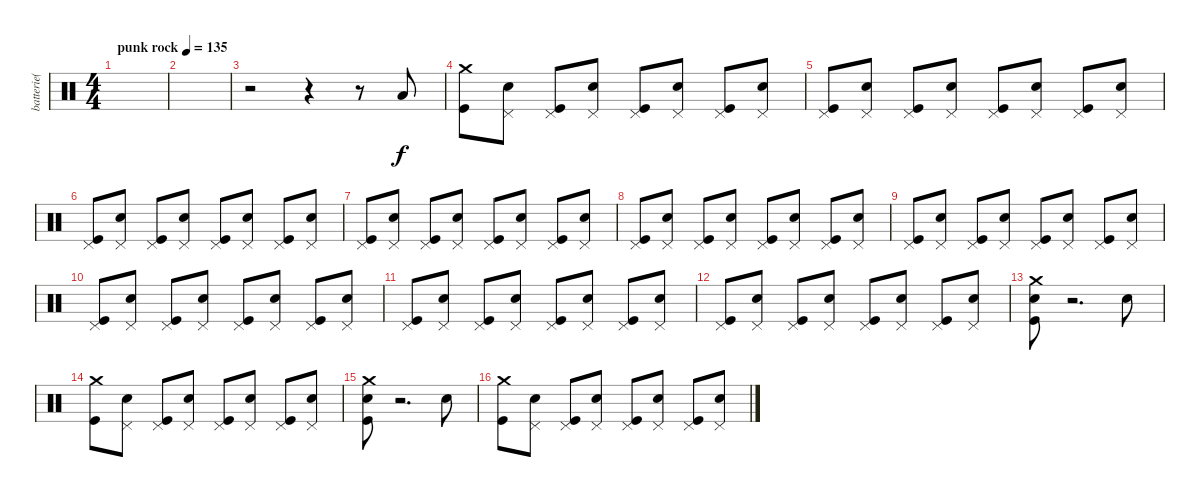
\track ("batterie( Yureesh )" "batterie( ") {instrument percussion}
\staff {score}
\articulation defaults
\ts (4 4)
\tempo (135 "punk rock")
\clef neutral
\ks c
|
|
r.2 r.4 r.8 "Low Floor Tom (hit)".8 |
("Crash medium (hit)" "Kick (hit)").8 ("Pedal Hi-Hat (hit)" "Snare (hit) 2").8 ("Pedal Hi-Hat (hit)" "Kick (hit)").8 ("Pedal Hi-Hat (hit)" "Snare (hit) 2").8 ("Pedal Hi-Hat (hit)" "Kick (hit)").8 ("Pedal Hi-Hat (hit)" "Snare (hit) 2").8 ("Pedal Hi-Hat (hit)" "Kick (hit)").8 ("Pedal Hi-Hat (hit)" "Snare (hit) 2").8 |
("Pedal Hi-Hat (hit)" "Kick (hit)").8 ("Pedal Hi-Hat (hit)" "Snare (hit) 2").8 ("Pedal Hi-Hat (hit)" "Kick (hit)").8 ("Pedal Hi-Hat (hit)" "Snare (hit) 2").8 ("Pedal Hi-Hat (hit)" "Kick (hit)").8 ("Pedal Hi-Hat (hit)" "Snare (hit) 2").8 ("Pedal Hi-Hat (hit)" "Kick (hit)").8 ("Pedal Hi-Hat (hit)" "Snare (hit) 2").8 |
("Pedal Hi-Hat (hit)" "Kick (hit)").8 ("Pedal Hi-Hat (hit)" "Snare (hit) 2").8 ("Pedal Hi-Hat (hit)" "Kick (hit)").8 ("Pedal Hi-Hat (hit)" "Snare (hit) 2").8 ("Pedal Hi-Hat (hit)" "Kick (hit)").8 ("Pedal Hi-Hat (hit)" "Snare (hit) 2").8 ("Pedal Hi-Hat (hit)" "Kick (hit)").8 ("Pedal Hi-Hat (hit)" "Snare (hit) 2").8 |
("Pedal Hi-Hat (hit)" "Kick (hit)").8 ("Pedal Hi-Hat (hit)" "Snare (hit) 2").8 ("Pedal Hi-Hat (hit)" "Kick (hit)").8 ("Pedal Hi-Hat (hit)" "Snare (hit) 2").8 ("Pedal Hi-Hat (hit)" "Kick (hit)").8 ("Pedal Hi-Hat (hit)" "Snare (hit) 2").8 ("Pedal Hi-Hat (hit)" "Kick (hit)").8 ("Pedal Hi-Hat (hit)" "Snare (hit) 2").8 |
("Pedal Hi-Hat (hit)" "Kick (hit)").8 ("Pedal Hi-Hat (hit)" "Snare (hit) 2").8 ("Pedal Hi-Hat (hit)" "Kick (hit)").8 ("Pedal Hi-Hat (hit)" "Snare (hit) 2").8 ("Pedal Hi-Hat (hit)" "Kick (hit)").8 ("Pedal Hi-Hat (hit)" "Snare (hit) 2").8 ("Pedal Hi-Hat (hit)" "Kick (hit)").8 ("Pedal Hi-Hat (hit)" "Snare (hit) 2").8 |
("Pedal Hi-Hat (hit)" "Kick (hit)").8 ("Pedal Hi-Hat (hit)" "Snare (hit) 2").8 ("Pedal Hi-Hat (hit)" "Kick (hit)").8 ("Pedal Hi-Hat (hit)" "Snare (hit) 2").8 ("Pedal Hi-Hat (hit)" "Kick (hit)").8 ("Pedal Hi-Hat (hit)" "Snare (hit) 2").8 ("Pedal Hi-Hat (hit)" "Kick (hit)").8 ("Pedal Hi-Hat (hit)" "Snare (hit) 2").8 |
("Pedal Hi-Hat (hit)" "Kick (hit)").8 ("Pedal Hi-Hat (hit)" "Snare (hit) 2").8 ("Pedal Hi-Hat (hit)" "Kick (hit)").8 ("Pedal Hi-Hat (hit)" "Snare (hit) 2").8 ("Pedal Hi-Hat (hit)" "Kick (hit)").8 ("Pedal Hi-Hat (hit)" "Snare (hit) 2").8 ("Pedal Hi-Hat (hit)" "Kick (hit)").8 ("Pedal Hi-Hat (hit)" "Snare (hit) 2").8 |
("Pedal Hi-Hat (hit)" "Kick (hit)").8 ("Pedal Hi-Hat (hit)" "Snare (hit) 2").8 ("Pedal Hi-Hat (hit)" "Kick (hit)").8 ("Pedal Hi-Hat (hit)" "Snare (hit) 2").8 ("Pedal Hi-Hat (hit)" "Kick (hit)").8 ("Pedal Hi-Hat (hit)" "Snare (hit) 2").8 ("Pedal Hi-Hat (hit)" "Kick (hit)").8 ("Pedal Hi-Hat (hit)" "Snare (hit) 2").8 |
("Pedal Hi-Hat (hit)" "Kick (hit)").8 ("Pedal Hi-Hat (hit)" "Snare (hit) 2").8 ("Pedal Hi-Hat (hit)" "Kick (hit)").8 ("Pedal Hi-Hat (hit)" "Snare (hit) 2").8 ("Pedal Hi-Hat (hit)" "Kick (hit)").8 ("Pedal Hi-Hat (hit)" "Snare (hit) 2").8 ("Pedal Hi-Hat (hit)" "Kick (hit)").8 ("Pedal Hi-Hat (hit)" "Snare (hit) 2").8 |
("Crash medium (hit)" "Snare (hit) 2" "Kick (hit)").8 r.2{d} "Snare (hit) 2".8 |
("Crash medium (hit)" "Kick (hit)").8 ("Pedal Hi-Hat (hit)" "Snare (hit) 2").8 ("Pedal Hi-Hat (hit)" "Kick (hit)").8 ("Pedal Hi-Hat (hit)" "Snare (hit) 2").8 ("Pedal Hi-Hat (hit)" "Kick (hit)").8 ("Pedal Hi-Hat (hit)" "Snare (hit) 2").8 ("Pedal Hi-Hat (hit)" "Kick (hit)").8 ("Pedal Hi-Hat (hit)" "Snare (hit) 2").8 |
("Crash medium (hit)" "Snare (hit) 2" "Kick (hit)").8 r.2{d} "Snare (hit) 2".8 |
("Crash medium (hit)" "Kick (hit)").8 ("Pedal Hi-Hat (hit)" "Snare (hit) 2").8 ("Pedal Hi-Hat (hit)" "Kick (hit)").8 ("Pedal Hi-Hat (hit)" "Snare (hit) 2").8 ("Pedal Hi-Hat (hit)" "Kick (hit)").8 ("Pedal Hi-Hat (hit)" "Snare (hit) 2").8 ("Pedal Hi-Hat (hit)" "Kick (hit)").8 ("Pedal Hi-Hat (hit)" "Snare (hit) 2").8
